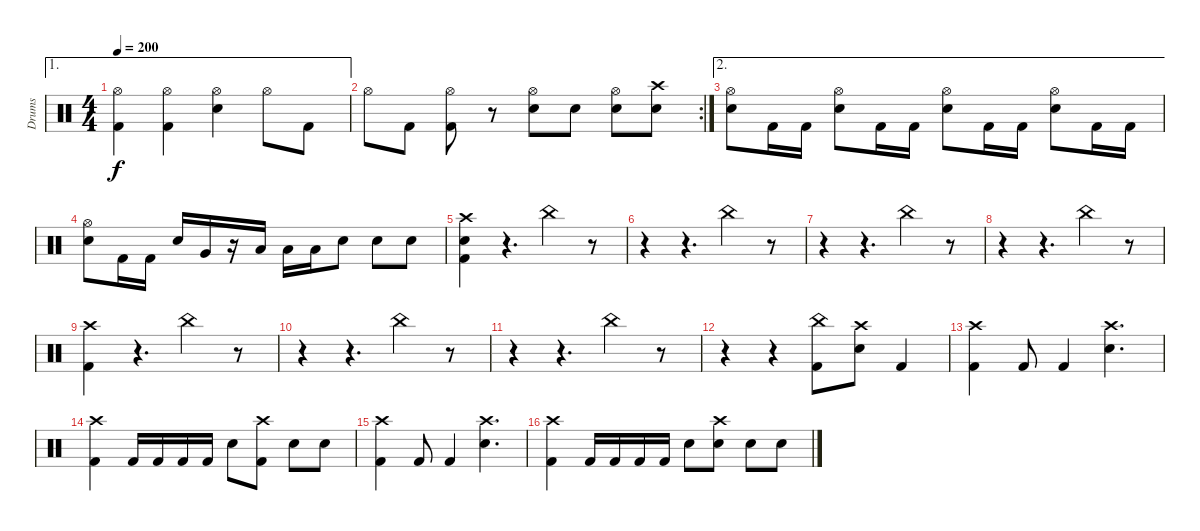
\track ("Drums" "Drums") {instrument percussion}
\staff {score}
\articulation defaults
\ae 1
\ts (4 4)
\tempo 200
\clef neutral
\ks c
("Hi-Hat (open)" "Kick (hit) 2").4{dy f} ("Hi-Hat (open)" "Kick (hit) 2").4 ("Hi-Hat (open)" "Snare (hit) 2").4 "Hi-Hat (open)".8 "Kick (hit) 2".8 |
\rc 2 "Hi-Hat (open)".8 "Kick (hit) 2".8
("Hi-Hat (open)" "Kick (hit) 2").8 r.8 ("Hi-Hat (open)" "Snare (hit) 2").8 "Snare (hit) 2".8 ("Hi-Hat (open)" "Snare (hit) 2").8 ("Crash high (hit)" "Snare (hit) 2").8 |
\ae 2
("Hi-Hat (open)" "Snare (hit) 2").8 "Kick (hit) 2".16 "Kick (hit) 2".16 ("Hi-Hat (open)" "Snare (hit) 2").8 "Kick (hit) 2".16 "Kick (hit) 2".16 ("Hi-Hat (open)" "Snare (hit) 2").8 "Kick (hit) 2".16 "Kick (hit) 2".16 ("Hi-Hat (open)" "Snare (hit) 2").8 "Kick (hit) 2".16 "Kick (hit) 2".16 |
("Hi-Hat (open)" "Snare (hit) 2").8 "Kick (hit) 2".16 "Kick (hit) 2".16 "Snare (hit) 2".16 "Very Low Tom (hit)".16 r.16 "Low Tom (hit)".16 "Low Tom (hit)".16 "Low Tom (hit)".16 "Snare (hit) 2".8 "Snare (hit) 2".8 "Snare (hit) 2".8 |
("Crash high (hit)" "Snare (hit) 2" "Kick (hit) 2").4 r.4{d} "China (hit)".4 r.8 |
r.4 r.4{d} "China (hit)".4 r.8 |
r.4 r.4{d} "China (hit)".4 r.8 |
r.4 r.4{d} "China (hit)".4 r.8 |
("Crash high (hit)" "Kick (hit) 2").4 r.4{d} "China (hit)".4 r.8 |
r.4 r.4{d} "China (hit)".4 r.8 |
r.4 r.4{d} "China (hit)".4 r.8 |
r.4 r.4 ("China (hit)" "Kick (hit) 2").8 ("Crash high (hit)" "Snare (hit) 2").8 "Kick (hit) 2".4 |
("Crash high (hit)" "Kick (hit) 2").4 "Kick (hit) 2".8 "Kick (hit) 2".4 ("Crash high (hit)" "Snare (hit) 2").4{d} |
("Crash high (hit)" "Kick (hit) 2").4 "Kick (hit) 2".16 "Kick (hit) 2".16 "Kick (hit) 2".16 "Kick (hit) 2".16 "Snare (hit) 2".8 ("Crash high (hit)" "Kick (hit) 2").8 "Snare (hit) 2".8 "Snare (hit) 2".8 |
("Crash high (hit)" "Kick (hit) 2").4 "Kick (hit) 2".8 "Kick (hit) 2".4 ("Crash high (hit)" "Snare (hit) 2").4{d} |
("Crash high (hit)" "Kick (hit) 2").4 "Kick (hit) 2".16 "Kick (hit) 2".16 "Kick (hit) 2".16 "Kick (hit) 2".16 "Snare (hit) 2".8 ("Crash high (hit)" "Snare (hit) 2").8 "Snare (hit) 2".8 "Snare (hit) 2".8
